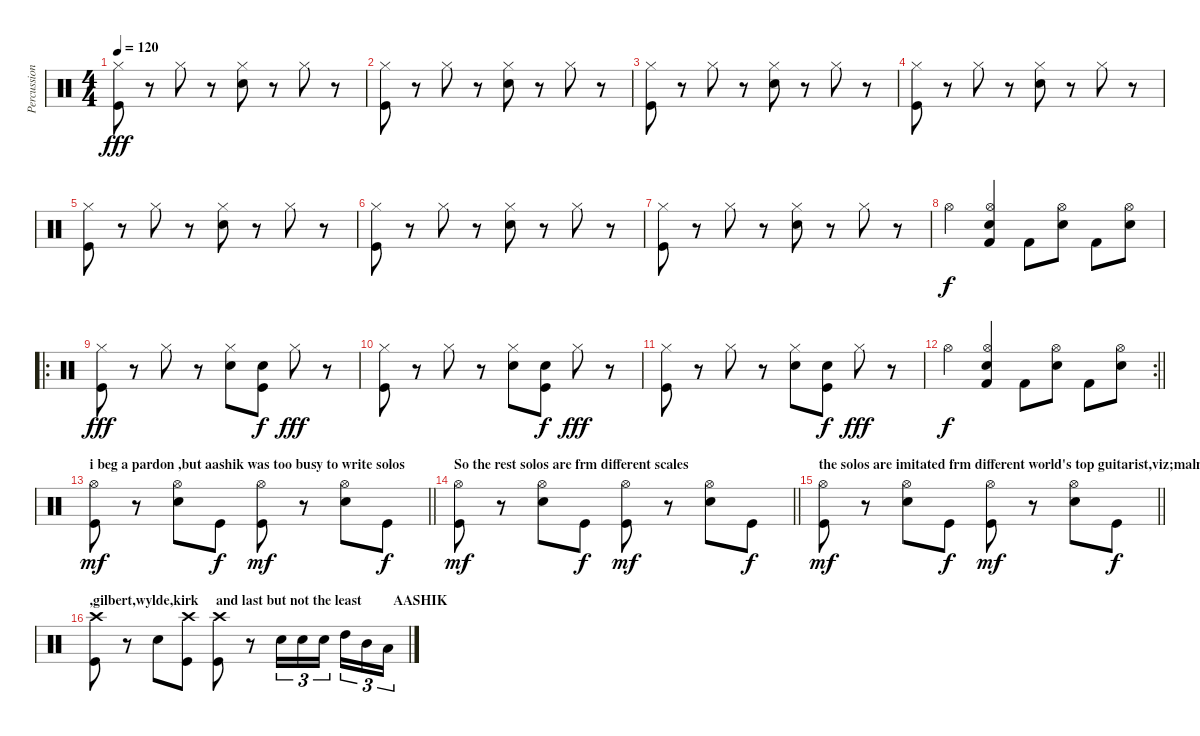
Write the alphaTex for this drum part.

\track ("Percussion(Satish)" "Percussion") {instrument percussion}
\staff {score}
\articulation defaults
\ts (4 4)
\tempo 120
\clef neutral
\ks c
("Hi-Hat (closed)" "Kick (hit)").8{dy fff} r.8 "Hi-Hat (closed)".8 r.8 ("Hi-Hat (closed)" "Snare (hit) 2").8 r.8 "Hi-Hat (closed)".8 r.8 |
("Hi-Hat (closed)" "Kick (hit)").8 r.8 "Hi-Hat (closed)".8 r.8 ("Hi-Hat (closed)" "Snare (hit) 2").8 r.8 "Hi-Hat (closed)".8 r.8 |
("Hi-Hat (closed)" "Kick (hit)").8 r.8 "Hi-Hat (closed)".8 r.8 ("Hi-Hat (closed)" "Snare (hit) 2").8 r.8 "Hi-Hat (closed)".8 r.8 |
("Hi-Hat (closed)" "Kick (hit)").8 r.8 "Hi-Hat (closed)".8 r.8 ("Hi-Hat (closed)" "Snare (hit) 2").8 r.8 "Hi-Hat (closed)".8 r.8 |
("Hi-Hat (closed)" "Kick (hit)").8 r.8 "Hi-Hat (closed)".8 r.8 ("Hi-Hat (closed)" "Snare (hit) 2").8 r.8 "Hi-Hat (closed)".8 r.8 |
("Hi-Hat (closed)" "Kick (hit)").8 r.8 "Hi-Hat (closed)".8 r.8 ("Hi-Hat (closed)" "Snare (hit) 2").8 r.8 "Hi-Hat (closed)".8 r.8 |
("Hi-Hat (closed)" "Kick (hit)").8 r.8 "Hi-Hat (closed)".8 r.8 ("Hi-Hat (closed)" "Snare (hit) 2").8 r.8 "Hi-Hat (closed)".8 r.8 |
"Hi-Hat (open)".4{dy f} ("Kick (hit) 2" "Snare (hit) 2" "Hi-Hat (open)").4 "Kick (hit) 2".8 ("Hi-Hat (open)" "Electric Snare (hit)").8 "Kick (hit) 2".8 ("Electric Snare (hit)" "Hi-Hat (open)").8 |
\ro
("Hi-Hat (closed)" "Kick (hit)").8{dy fff} r.8 "Hi-Hat (closed)".8 r.8 ("Hi-Hat (closed)" "Snare (hit) 2").8 ("Snare (hit) 2" "Kick (hit)").8{dy f} "Hi-Hat (closed)".8{dy fff} r.8 |
("Hi-Hat (closed)" "Kick (hit)").8 r.8 "Hi-Hat (closed)".8 r.8 ("Hi-Hat (closed)" "Snare (hit) 2").8 ("Snare (hit) 2" "Kick (hit)").8{dy f} "Hi-Hat (closed)".8{dy fff} r.8 |
("Hi-Hat (closed)" "Kick (hit)").8 r.8 "Hi-Hat (closed)".8 r.8 ("Hi-Hat (closed)" "Snare (hit) 2").8 ("Snare (hit) 2" "Kick (hit)").8{dy f} "Hi-Hat (closed)".8{dy fff} r.8 |
\rc 2
\barLineRight lightlight "Hi-Hat (open)".4{dy f}
("Kick (hit) 2" "Snare (hit) 2" "Hi-Hat (open)").4 "Kick (hit) 2".8 ("Hi-Hat (open)" "Electric Snare (hit)").8 "Kick (hit) 2".8 ("Electric Snare (hit)" "Hi-Hat (open)").8 |
\section ("" "i beg a pardon ,but aashik was too busy to write solos")
\barLineRight lightlight
("Hi-Hat (open)" "Kick (hit)").8{dy mf} r.8 ("Hi-Hat (open)" "Electric Snare (hit)").8 "Kick (hit)".8{dy f} ("Hi-Hat (open)" "Kick (hit)").8{dy mf} r.8 ("Hi-Hat (open)" "Electric Snare (hit)").8 "Kick (hit)".8{dy f} |
\section ("" "So the rest solos are frm different scales")
\barLineRight lightlight
("Hi-Hat (open)" "Kick (hit)").8{dy mf} r.8 ("Hi-Hat (open)" "Electric Snare (hit)").8 "Kick (hit)".8{dy f} ("Hi-Hat (open)" "Kick (hit)").8{dy mf} r.8 ("Hi-Hat (open)" "Electric Snare (hit)").8 "Kick (hit)".8{dy f} |
\section ("" "the solos are imitated frm different world's top guitarist,viz;malmsteem,")
\barLineRight lightlight
("Hi-Hat (open)" "Kick (hit)").8{dy mf} r.8 ("Hi-Hat (open)" "Electric Snare (hit)").8 "Kick (hit)".8{dy f} ("Hi-Hat (open)" "Kick (hit)").8{dy mf} r.8 ("Hi-Hat (open)" "Electric Snare (hit)").8 "Kick (hit)".8{dy f} |
\section ("" ",gilbert,wylde,kirk     and last but not the least         AASHIK")
("Crash high (hit)" "Kick (hit)").8 r.8 "Electric Snare (hit)".8 ("Crash high (hit)" "Kick (hit)").8 ("Crash high (hit)" "Kick (hit)").8 r.8 "Electric Snare (hit)".16{tu (3 2)} "Electric Snare (hit)".16{tu (3 2)} "Electric Snare (hit)".16{tu (3 2) beam splitsecondary} "High Tom (hit)".16{tu (3 2)} "Mid Tom (hit)".16{tu (3 2)} "Low Tom (hit)".16{tu (3 2)}
